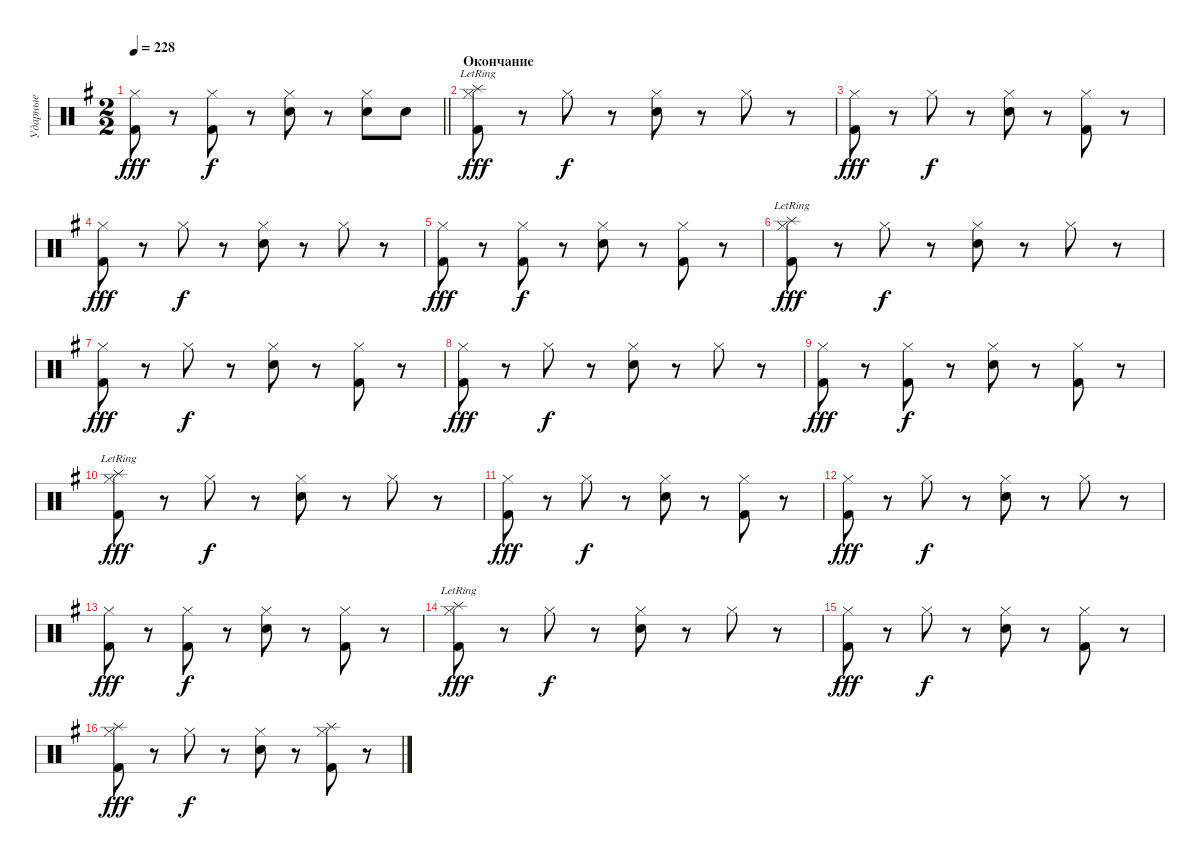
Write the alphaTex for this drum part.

\track ("Ударные" "Ударные") {instrument percussion}
\staff {score}
\articulation defaults
\ts (2 2)
\tempo 228
\clef neutral
\barLineRight lightlight
\ks eminor
("Hi-Hat (closed)" "Kick (hit) 2").8{dy fff} r.8 ("Hi-Hat (closed)" "Kick (hit) 2").8{dy f} r.8 ("Hi-Hat (closed)" "Snare (hit) 2").8 r.8 ("Hi-Hat (closed)" "Snare (hit) 2").8 "Snare (hit) 2".8 |
\section ("" "Окончание")
("Hi-Hat (closed)" "Splash (hit)"{lr} "Kick (hit) 2").8{dy fff} r.8 "Hi-Hat (closed)".8{dy f} r.8 ("Hi-Hat (closed)" "Snare (hit) 2").8 r.8 "Hi-Hat (closed)".8 r.8 |
("Hi-Hat (closed)" "Kick (hit) 2").8{dy fff} r.8 "Hi-Hat (closed)".8{dy f} r.8 ("Hi-Hat (closed)" "Snare (hit) 2").8 r.8 ("Hi-Hat (closed)" "Kick (hit) 2").8 r.8 |
("Hi-Hat (closed)" "Kick (hit) 2").8{dy fff} r.8 "Hi-Hat (closed)".8{dy f} r.8 ("Hi-Hat (closed)" "Snare (hit) 2").8 r.8 "Hi-Hat (closed)".8 r.8 |
("Hi-Hat (closed)" "Kick (hit) 2").8{dy fff} r.8 ("Hi-Hat (closed)" "Kick (hit) 2").8{dy f} r.8 ("Hi-Hat (closed)" "Snare (hit) 2").8 r.8 ("Hi-Hat (closed)" "Kick (hit) 2").8 r.8 |
("Hi-Hat (closed)" "Splash (hit)"{lr} "Kick (hit) 2").8{dy fff} r.8 "Hi-Hat (closed)".8{dy f} r.8 ("Hi-Hat (closed)" "Snare (hit) 2").8 r.8 "Hi-Hat (closed)".8 r.8 |
("Hi-Hat (closed)" "Kick (hit) 2").8{dy fff} r.8 "Hi-Hat (closed)".8{dy f} r.8 ("Hi-Hat (closed)" "Snare (hit) 2").8 r.8 ("Hi-Hat (closed)" "Kick (hit) 2").8 r.8 |
("Hi-Hat (closed)" "Kick (hit) 2").8{dy fff} r.8 "Hi-Hat (closed)".8{dy f} r.8 ("Hi-Hat (closed)" "Snare (hit) 2").8 r.8 "Hi-Hat (closed)".8 r.8 |
("Hi-Hat (closed)" "Kick (hit) 2").8{dy fff} r.8 ("Hi-Hat (closed)" "Kick (hit) 2").8{dy f} r.8 ("Hi-Hat (closed)" "Snare (hit) 2").8 r.8 ("Hi-Hat (closed)" "Kick (hit) 2").8 r.8 |
("Hi-Hat (closed)" "Splash (hit)"{lr} "Kick (hit) 2").8{dy fff} r.8 "Hi-Hat (closed)".8{dy f} r.8 ("Hi-Hat (closed)" "Snare (hit) 2").8 r.8 "Hi-Hat (closed)".8 r.8 |
("Hi-Hat (closed)" "Kick (hit) 2").8{dy fff} r.8 "Hi-Hat (closed)".8{dy f} r.8 ("Hi-Hat (closed)" "Snare (hit) 2").8 r.8 ("Hi-Hat (closed)" "Kick (hit) 2").8 r.8 |
("Hi-Hat (closed)" "Kick (hit) 2").8{dy fff} r.8 "Hi-Hat (closed)".8{dy f} r.8 ("Hi-Hat (closed)" "Snare (hit) 2").8 r.8 "Hi-Hat (closed)".8 r.8 |
("Hi-Hat (closed)" "Kick (hit) 2").8{dy fff} r.8 ("Hi-Hat (closed)" "Kick (hit) 2").8{dy f} r.8 ("Hi-Hat (closed)" "Snare (hit) 2").8 r.8 ("Hi-Hat (closed)" "Kick (hit) 2").8 r.8 |
("Hi-Hat (closed)" "Splash (hit)"{lr} "Kick (hit) 2").8{dy fff} r.8 "Hi-Hat (closed)".8{dy f} r.8 ("Hi-Hat (closed)" "Snare (hit) 2").8 r.8 "Hi-Hat (closed)".8 r.8 |
("Hi-Hat (closed)" "Kick (hit) 2").8{dy fff} r.8 "Hi-Hat (closed)".8{dy f} r.8 ("Hi-Hat (closed)" "Snare (hit) 2").8 r.8 ("Hi-Hat (closed)" "Kick (hit) 2").8 r.8 |
("Hi-Hat (closed)" "Splash (hit)" "Kick (hit) 2").8{dy fff} r.8 "Hi-Hat (closed)".8{dy f} r.8 ("Hi-Hat (closed)" "Snare (hit) 2").8 r.8 ("Hi-Hat (closed)" "Splash (hit)" "Kick (hit) 2").8 r.8
